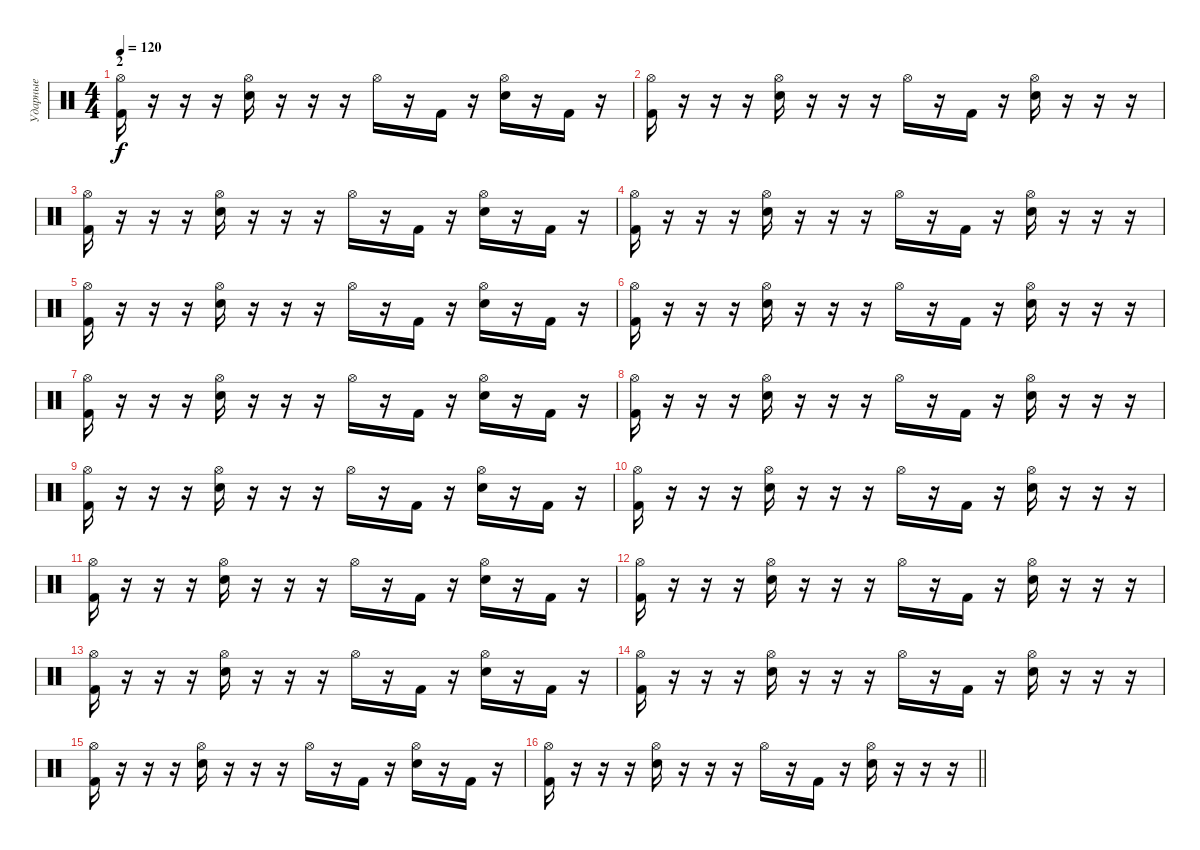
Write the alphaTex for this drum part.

\track ("Ударные" "Ударные") {instrument percussion}
\staff {score}
\articulation defaults
\ts (4 4)
\section ("" "2")
\tempo 120
\clef neutral
\ks c
("Hi-Hat (open)" "Kick (hit) 2").16{dy f} r.16 r.16 r.16 ("Hi-Hat (open)" "Snare (hit) 2").16 r.16 r.16 r.16 "Hi-Hat (open)".16 r.16 "Kick (hit) 2".16 r.16 ("Hi-Hat (open)" "Snare (hit) 2").16 r.16 "Kick (hit) 2".16 r.16 |
("Hi-Hat (open)" "Kick (hit) 2").16 r.16 r.16 r.16 ("Hi-Hat (open)" "Snare (hit) 2").16 r.16 r.16 r.16 "Hi-Hat (open)".16 r.16 "Kick (hit) 2".16 r.16 ("Hi-Hat (open)" "Snare (hit) 2").16 r.16 r.16 r.16 |
("Hi-Hat (open)" "Kick (hit) 2").16 r.16 r.16 r.16 ("Hi-Hat (open)" "Snare (hit) 2").16 r.16 r.16 r.16 "Hi-Hat (open)".16 r.16 "Kick (hit) 2".16 r.16 ("Hi-Hat (open)" "Snare (hit) 2").16 r.16 "Kick (hit) 2".16 r.16 |
("Hi-Hat (open)" "Kick (hit) 2").16 r.16 r.16 r.16 ("Hi-Hat (open)" "Snare (hit) 2").16 r.16 r.16 r.16 "Hi-Hat (open)".16 r.16 "Kick (hit) 2".16 r.16 ("Hi-Hat (open)" "Snare (hit) 2").16 r.16 r.16 r.16 |
("Hi-Hat (open)" "Kick (hit) 2").16 r.16 r.16 r.16 ("Hi-Hat (open)" "Snare (hit) 2").16 r.16 r.16 r.16 "Hi-Hat (open)".16 r.16 "Kick (hit) 2".16 r.16 ("Hi-Hat (open)" "Snare (hit) 2").16 r.16 "Kick (hit) 2".16 r.16 |
("Hi-Hat (open)" "Kick (hit) 2").16 r.16 r.16 r.16 ("Hi-Hat (open)" "Snare (hit) 2").16 r.16 r.16 r.16 "Hi-Hat (open)".16 r.16 "Kick (hit) 2".16 r.16 ("Hi-Hat (open)" "Snare (hit) 2").16 r.16 r.16 r.16 |
("Hi-Hat (open)" "Kick (hit) 2").16 r.16 r.16 r.16 ("Hi-Hat (open)" "Snare (hit) 2").16 r.16 r.16 r.16 "Hi-Hat (open)".16 r.16 "Kick (hit) 2".16 r.16 ("Hi-Hat (open)" "Snare (hit) 2").16 r.16 "Kick (hit) 2".16 r.16 |
("Hi-Hat (open)" "Kick (hit) 2").16 r.16 r.16 r.16 ("Hi-Hat (open)" "Snare (hit) 2").16 r.16 r.16 r.16 "Hi-Hat (open)".16 r.16 "Kick (hit) 2".16 r.16 ("Hi-Hat (open)" "Snare (hit) 2").16 r.16 r.16 r.16 |
("Hi-Hat (open)" "Kick (hit) 2").16 r.16 r.16 r.16 ("Hi-Hat (open)" "Snare (hit) 2").16 r.16 r.16 r.16 "Hi-Hat (open)".16 r.16 "Kick (hit) 2".16 r.16 ("Hi-Hat (open)" "Snare (hit) 2").16 r.16 "Kick (hit) 2".16 r.16 |
("Hi-Hat (open)" "Kick (hit) 2").16 r.16 r.16 r.16 ("Hi-Hat (open)" "Snare (hit) 2").16 r.16 r.16 r.16 "Hi-Hat (open)".16 r.16 "Kick (hit) 2".16 r.16 ("Hi-Hat (open)" "Snare (hit) 2").16 r.16 r.16 r.16 |
("Hi-Hat (open)" "Kick (hit) 2").16 r.16 r.16 r.16 ("Hi-Hat (open)" "Snare (hit) 2").16 r.16 r.16 r.16 "Hi-Hat (open)".16 r.16 "Kick (hit) 2".16 r.16 ("Hi-Hat (open)" "Snare (hit) 2").16 r.16 "Kick (hit) 2".16 r.16 |
("Hi-Hat (open)" "Kick (hit) 2").16 r.16 r.16 r.16 ("Hi-Hat (open)" "Snare (hit) 2").16 r.16 r.16 r.16 "Hi-Hat (open)".16 r.16 "Kick (hit) 2".16 r.16 ("Hi-Hat (open)" "Snare (hit) 2").16 r.16 r.16 r.16 |
("Hi-Hat (open)" "Kick (hit) 2").16 r.16 r.16 r.16 ("Hi-Hat (open)" "Snare (hit) 2").16 r.16 r.16 r.16 "Hi-Hat (open)".16 r.16 "Kick (hit) 2".16 r.16 ("Hi-Hat (open)" "Snare (hit) 2").16 r.16 "Kick (hit) 2".16 r.16 |
("Hi-Hat (open)" "Kick (hit) 2").16 r.16 r.16 r.16 ("Hi-Hat (open)" "Snare (hit) 2").16 r.16 r.16 r.16 "Hi-Hat (open)".16 r.16 "Kick (hit) 2".16 r.16 ("Hi-Hat (open)" "Snare (hit) 2").16 r.16 r.16 r.16 |
("Hi-Hat (open)" "Kick (hit) 2").16 r.16 r.16 r.16 ("Hi-Hat (open)" "Snare (hit) 2").16 r.16 r.16 r.16 "Hi-Hat (open)".16 r.16 "Kick (hit) 2".16 r.16 ("Hi-Hat (open)" "Snare (hit) 2").16 r.16 "Kick (hit) 2".16 r.16 |
\barLineRight lightlight
("Hi-Hat (open)" "Kick (hit) 2").16 r.16 r.16 r.16 ("Hi-Hat (open)" "Snare (hit) 2").16 r.16 r.16 r.16 "Hi-Hat (open)".16 r.16 "Kick (hit) 2".16 r.16 ("Hi-Hat (open)" "Snare (hit) 2").16 r.16 r.16 r.16
